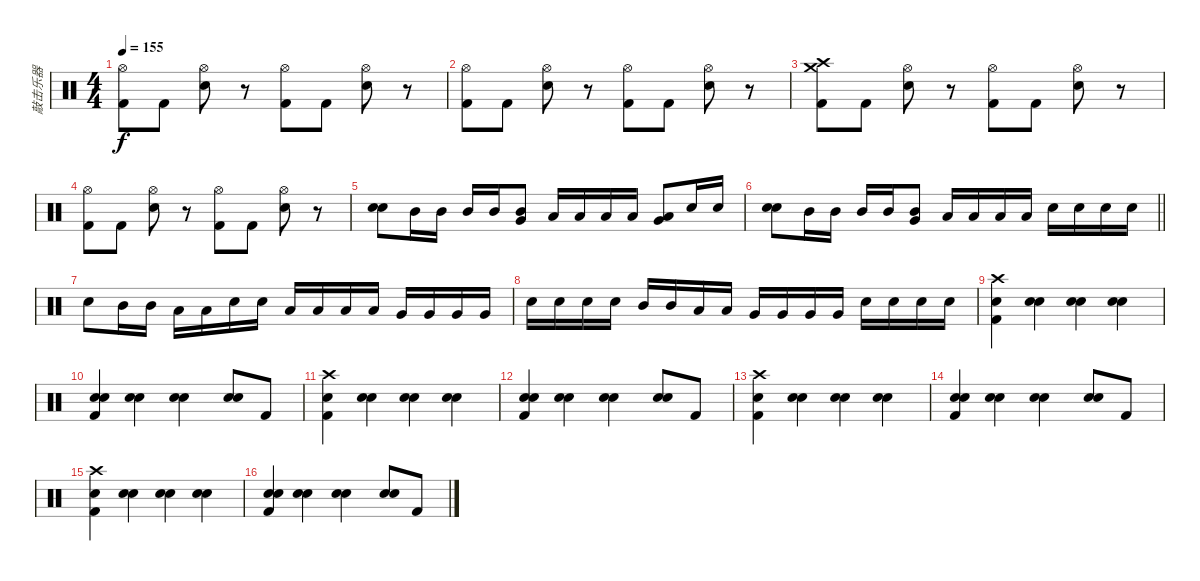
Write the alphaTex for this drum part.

\track ("敲击乐器" "敲击乐器") {instrument percussion}
\staff {score}
\articulation defaults
\ts (4 4)
\tempo 155
\clef neutral
\ks c
("Hi-Hat (open)" "Kick (hit) 2").8{dy f} "Kick (hit) 2".8 ("Hi-Hat (open)" "Snare (hit) 2").8 r.8 ("Hi-Hat (open)" "Kick (hit) 2").8 "Kick (hit) 2".8 ("Hi-Hat (open)" "Snare (hit) 2").8 r.8 |
("Hi-Hat (open)" "Kick (hit) 2").8 "Kick (hit) 2".8 ("Hi-Hat (open)" "Snare (hit) 2").8 r.8 ("Hi-Hat (open)" "Kick (hit) 2").8 "Kick (hit) 2".8 ("Hi-Hat (open)" "Snare (hit) 2").8 r.8 |
("Crash high (hit)" "Crash medium (hit)" "Kick (hit) 2").8 "Kick (hit) 2".8 ("Hi-Hat (open)" "Snare (hit) 2").8 r.8 ("Hi-Hat (open)" "Kick (hit) 2").8 "Kick (hit) 2".8 ("Hi-Hat (open)" "Snare (hit) 2").8 r.8 |
("Hi-Hat (open)" "Kick (hit) 2").8 "Kick (hit) 2".8 ("Hi-Hat (open)" "Snare (hit) 2").8 r.8 ("Hi-Hat (open)" "Kick (hit) 2").8 "Kick (hit) 2".8 ("Hi-Hat (open)" "Snare (hit) 2").8 r.8 |
("Snare (hit) 2" "Snare (hit) 2").8{bd 60} "Mid Tom (hit)".16 "Mid Tom (hit)".16 "Mid Tom (hit)".16 "Mid Tom (hit)".16 ("Very Low Tom (hit)" "Mid Tom (hit)").8{bd 60} "Low Tom (hit)".16 "Low Tom (hit)".16 "Low Tom (hit)".16 "Low Tom (hit)".16 ("Low Tom (hit)" "Very Low Tom (hit)").8{bd 60} "Snare (hit) 2".16 "Snare (hit) 2".16 |
\barLineRight lightlight
("Snare (hit) 2" "Snare (hit) 2").8{bd 60} "Mid Tom (hit)".16 "Mid Tom (hit)".16 "Mid Tom (hit)".16 "Mid Tom (hit)".16 ("Very Low Tom (hit)" "Mid Tom (hit)").8{bd 60} "Low Tom (hit)".16 "Low Tom (hit)".16 "Low Tom (hit)".16 "Low Tom (hit)".16 "Snare (hit) 2".16 "Snare (hit) 2".16 "Snare (hit) 2".16 "Snare (hit) 2".16 |
"Snare (hit) 2".8 "Mid Tom (hit)".16 "Mid Tom (hit)".16 "Low Tom (hit)".16 "Low Tom (hit)".16 "Snare (hit) 2".16 "Snare (hit) 2".16 "Low Tom (hit)".16 "Low Tom (hit)".16 "Low Tom (hit)".16 "Low Tom (hit)".16 "Very Low Tom (hit)".16 "Very Low Tom (hit)".16 "Very Low Tom (hit)".16 "Very Low Tom (hit)".16 |
"Snare (hit) 2".16 "Snare (hit) 2".16 "Snare (hit) 2".16 "Snare (hit) 2".16 "Mid Tom (hit)".16 "Mid Tom (hit)".16 "Low Tom (hit)".16 "Low Tom (hit)".16 "Very Low Tom (hit)".16 "Very Low Tom (hit)".16 "Very Low Tom (hit)".16 "Very Low Tom (hit)".16 "Snare (hit) 2".16 "Snare (hit) 2".16 "Snare (hit) 2".16 "Snare (hit) 2".16 |
("Crash high (hit)" "Snare (hit) 2" "Kick (hit) 2").4 ("Snare (hit) 2" "Snare (hit) 2").4{bd 60} ("Snare (hit) 2" "Snare (hit) 2").4{bd 60} ("Snare (hit) 2" "Snare (hit) 2").4{bd 60} |
("Snare (hit) 2" "Snare (hit) 2" "Kick (hit) 2").4 ("Snare (hit) 2" "Snare (hit) 2").4{bd 60} ("Snare (hit) 2" "Snare (hit) 2").4{bd 60} ("Snare (hit) 2" "Snare (hit) 2").8{bd 60} "Kick (hit) 2".8 |
("Crash high (hit)" "Snare (hit) 2" "Kick (hit) 2").4 ("Snare (hit) 2" "Snare (hit) 2").4{bd 60} ("Snare (hit) 2" "Snare (hit) 2").4{bd 60} ("Snare (hit) 2" "Snare (hit) 2").4{bd 60} |
("Snare (hit) 2" "Snare (hit) 2" "Kick (hit) 2").4 ("Snare (hit) 2" "Snare (hit) 2").4{bd 60} ("Snare (hit) 2" "Snare (hit) 2").4{bd 60} ("Snare (hit) 2" "Snare (hit) 2").8{bd 60} "Kick (hit) 2".8 |
("Crash high (hit)" "Snare (hit) 2" "Kick (hit) 2").4 ("Snare (hit) 2" "Snare (hit) 2").4{bd 60} ("Snare (hit) 2" "Snare (hit) 2").4{bd 60} ("Snare (hit) 2" "Snare (hit) 2").4{bd 60} |
("Snare (hit) 2" "Snare (hit) 2" "Kick (hit) 2").4 ("Snare (hit) 2" "Snare (hit) 2").4{bd 60} ("Snare (hit) 2" "Snare (hit) 2").4{bd 60} ("Snare (hit) 2" "Snare (hit) 2").8{bd 60} "Kick (hit) 2".8 |
("Crash high (hit)" "Snare (hit) 2" "Kick (hit) 2").4 ("Snare (hit) 2" "Snare (hit) 2").4{bd 60} ("Snare (hit) 2" "Snare (hit) 2").4{bd 60} ("Snare (hit) 2" "Snare (hit) 2").4{bd 60} |
("Snare (hit) 2" "Snare (hit) 2" "Kick (hit) 2").4 ("Snare (hit) 2" "Snare (hit) 2").4{bd 60} ("Snare (hit) 2" "Snare (hit) 2").4{bd 60} ("Snare (hit) 2" "Snare (hit) 2").8{bd 60} "Kick (hit) 2".8
